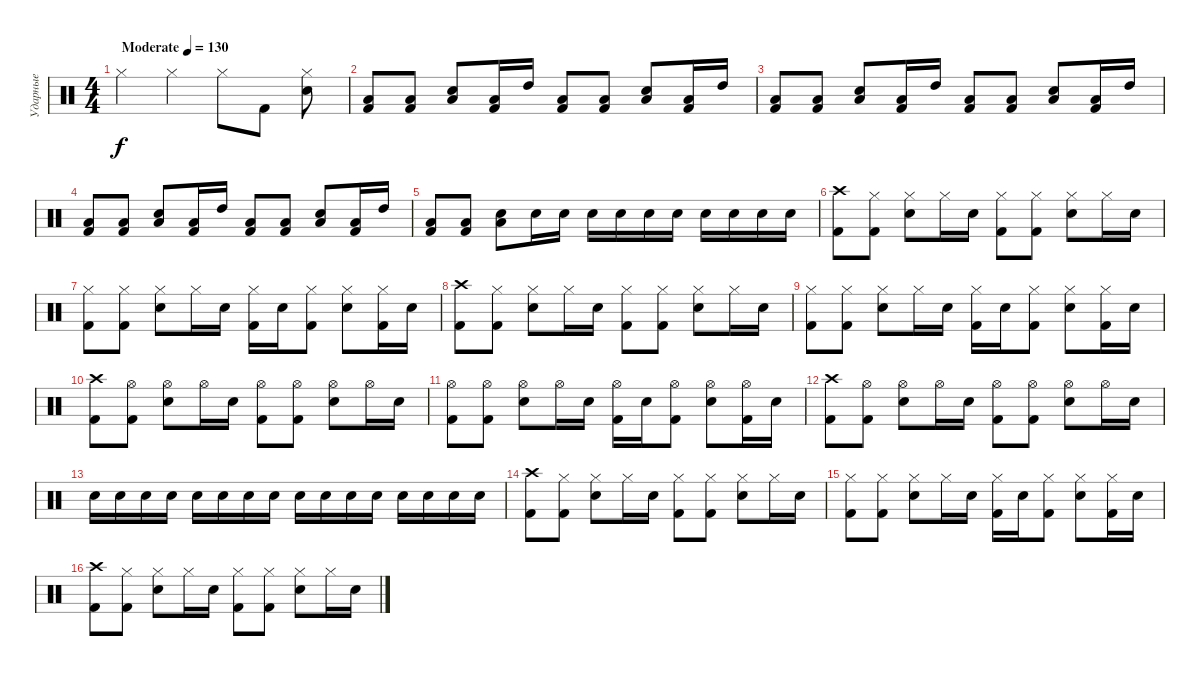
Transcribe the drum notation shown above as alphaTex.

\track ("Ударные" "Ударные") {instrument percussion}
\staff {score}
\articulation defaults
\ts (4 4)
\tempo (130 "Moderate")
\clef neutral
\ks c "Hi-Hat (closed)".4{dy f} "Hi-Hat (closed)".4 "Hi-Hat (closed)".8 "Kick (hit) 2".8
("Snare (hit) 2" "Hi-Hat (closed)").8 |
("Kick (hit) 2" "Low Tom (hit)").8 ("Kick (hit) 2" "Low Tom (hit)").8 ("Snare (hit) 2" "Low Tom (hit)").8 ("Kick (hit) 2" "Low Tom (hit)").16 "High Tom (hit)".16 ("Kick (hit) 2" "Low Tom (hit)").8 ("Kick (hit) 2" "Low Tom (hit)").8 ("Snare (hit) 2" "Low Tom (hit)").8 ("Kick (hit) 2" "Low Tom (hit)").16 "High Tom (hit)".16 |
("Kick (hit) 2" "Low Tom (hit)").8 ("Kick (hit) 2" "Low Tom (hit)").8 ("Snare (hit) 2" "Low Tom (hit)").8 ("Kick (hit) 2" "Low Tom (hit)").16 "High Tom (hit)".16 ("Kick (hit) 2" "Low Tom (hit)").8 ("Kick (hit) 2" "Low Tom (hit)").8 ("Snare (hit) 2" "Low Tom (hit)").8 ("Kick (hit) 2" "Low Tom (hit)").16 "High Tom (hit)".16 |
("Kick (hit) 2" "Low Tom (hit)").8 ("Kick (hit) 2" "Low Tom (hit)").8 ("Snare (hit) 2" "Low Tom (hit)").8 ("Kick (hit) 2" "Low Tom (hit)").16 "High Tom (hit)".16 ("Kick (hit) 2" "Low Tom (hit)").8 ("Kick (hit) 2" "Low Tom (hit)").8 ("Snare (hit) 2" "Low Tom (hit)").8 ("Kick (hit) 2" "Low Tom (hit)").16 "High Tom (hit)".16 |
("Kick (hit) 2" "Low Tom (hit)").8 ("Kick (hit) 2" "Low Tom (hit)").8 ("Snare (hit) 2" "Low Tom (hit)").8 "Snare (hit) 2".16 "Snare (hit) 2".16 "Snare (hit) 2".16 "Snare (hit) 2".16 "Snare (hit) 2".16 "Snare (hit) 2".16 "Snare (hit) 2".16 "Snare (hit) 2".16 "Snare (hit) 2".16 "Snare (hit) 2".16 |
("Kick (hit) 2" "Crash high (hit)").8 ("Kick (hit) 2" "Hi-Hat (closed)").8 ("Snare (hit) 2" "Hi-Hat (closed)").8 "Hi-Hat (closed)".16 "Snare (hit) 2".16 ("Kick (hit) 2" "Hi-Hat (closed)").8 ("Kick (hit) 2" "Hi-Hat (closed)").8 ("Snare (hit) 2" "Hi-Hat (closed)").8 "Hi-Hat (closed)".16 "Snare (hit) 2".16 |
("Kick (hit) 2" "Hi-Hat (closed)").8 ("Kick (hit) 2" "Hi-Hat (closed)").8 ("Snare (hit) 2" "Hi-Hat (closed)").8 "Hi-Hat (closed)".16 "Snare (hit) 2".16 ("Kick (hit) 2" "Hi-Hat (closed)").16 "Snare (hit) 2".16 ("Kick (hit) 2" "Hi-Hat (closed)").8 ("Snare (hit) 2" "Hi-Hat (closed)").8 ("Kick (hit) 2" "Hi-Hat (closed)").16 "Snare (hit) 2".16 |
("Kick (hit) 2" "Crash high (hit)").8 ("Kick (hit) 2" "Hi-Hat (closed)").8 ("Snare (hit) 2" "Hi-Hat (closed)").8 "Hi-Hat (closed)".16 "Snare (hit) 2".16 ("Kick (hit) 2" "Hi-Hat (closed)").8 ("Kick (hit) 2" "Hi-Hat (closed)").8 ("Snare (hit) 2" "Hi-Hat (closed)").8 "Hi-Hat (closed)".16 "Snare (hit) 2".16 |
("Kick (hit) 2" "Hi-Hat (closed)").8 ("Kick (hit) 2" "Hi-Hat (closed)").8 ("Snare (hit) 2" "Hi-Hat (closed)").8 "Hi-Hat (closed)".16 "Snare (hit) 2".16 ("Kick (hit) 2" "Hi-Hat (closed)").16 "Snare (hit) 2".16 ("Kick (hit) 2" "Hi-Hat (closed)").8 ("Snare (hit) 2" "Hi-Hat (closed)").8 ("Kick (hit) 2" "Hi-Hat (closed)").16 "Snare (hit) 2".16 |
("Kick (hit) 2" "Crash high (hit)").8 ("Kick (hit) 2" "Hi-Hat (open)").8 ("Snare (hit) 2" "Hi-Hat (open)").8 "Hi-Hat (open)".16 "Snare (hit) 2".16 ("Kick (hit) 2" "Hi-Hat (open)").8 ("Kick (hit) 2" "Hi-Hat (open)").8 ("Snare (hit) 2" "Hi-Hat (open)").8 "Hi-Hat (open)".16 "Snare (hit) 2".16 |
("Kick (hit) 2" "Hi-Hat (open)").8 ("Kick (hit) 2" "Hi-Hat (open)").8 ("Snare (hit) 2" "Hi-Hat (open)").8 "Hi-Hat (open)".16 "Snare (hit) 2".16 ("Kick (hit) 2" "Hi-Hat (open)").16 "Snare (hit) 2".16 ("Kick (hit) 2" "Hi-Hat (open)").8 ("Snare (hit) 2" "Hi-Hat (open)").8 ("Kick (hit) 2" "Hi-Hat (open)").16 "Snare (hit) 2".16 |
("Kick (hit) 2" "Crash high (hit)").8 ("Kick (hit) 2" "Hi-Hat (open)").8 ("Snare (hit) 2" "Hi-Hat (open)").8 "Hi-Hat (open)".16 "Snare (hit) 2".16 ("Kick (hit) 2" "Hi-Hat (open)").8 ("Kick (hit) 2" "Hi-Hat (open)").8 ("Snare (hit) 2" "Hi-Hat (open)").8 "Hi-Hat (open)".16 "Snare (hit) 2".16 |
"Snare (hit) 2".16 "Snare (hit) 2".16 "Snare (hit) 2".16 "Snare (hit) 2".16 "Snare (hit) 2".16 "Snare (hit) 2".16 "Snare (hit) 2".16 "Snare (hit) 2".16 "Snare (hit) 2".16 "Snare (hit) 2".16 "Snare (hit) 2".16 "Snare (hit) 2".16 "Snare (hit) 2".16 "Snare (hit) 2".16 "Snare (hit) 2".16 "Snare (hit) 2".16 |
("Kick (hit) 2" "Crash high (hit)").8 ("Kick (hit) 2" "Hi-Hat (closed)").8 ("Snare (hit) 2" "Hi-Hat (closed)").8 "Hi-Hat (closed)".16 "Snare (hit) 2".16 ("Kick (hit) 2" "Hi-Hat (closed)").8 ("Kick (hit) 2" "Hi-Hat (closed)").8 ("Snare (hit) 2" "Hi-Hat (closed)").8 "Hi-Hat (closed)".16 "Snare (hit) 2".16 |
("Kick (hit) 2" "Hi-Hat (closed)").8 ("Kick (hit) 2" "Hi-Hat (closed)").8 ("Snare (hit) 2" "Hi-Hat (closed)").8 "Hi-Hat (closed)".16 "Snare (hit) 2".16 ("Kick (hit) 2" "Hi-Hat (closed)").16 "Snare (hit) 2".16 ("Kick (hit) 2" "Hi-Hat (closed)").8 ("Snare (hit) 2" "Hi-Hat (closed)").8 ("Kick (hit) 2" "Hi-Hat (closed)").16 "Snare (hit) 2".16 |
("Kick (hit) 2" "Crash high (hit)").8 ("Kick (hit) 2" "Hi-Hat (closed)").8 ("Snare (hit) 2" "Hi-Hat (closed)").8 "Hi-Hat (closed)".16 "Snare (hit) 2".16 ("Kick (hit) 2" "Hi-Hat (closed)").8 ("Kick (hit) 2" "Hi-Hat (closed)").8 ("Snare (hit) 2" "Hi-Hat (closed)").8 "Hi-Hat (closed)".16 "Snare (hit) 2".16
